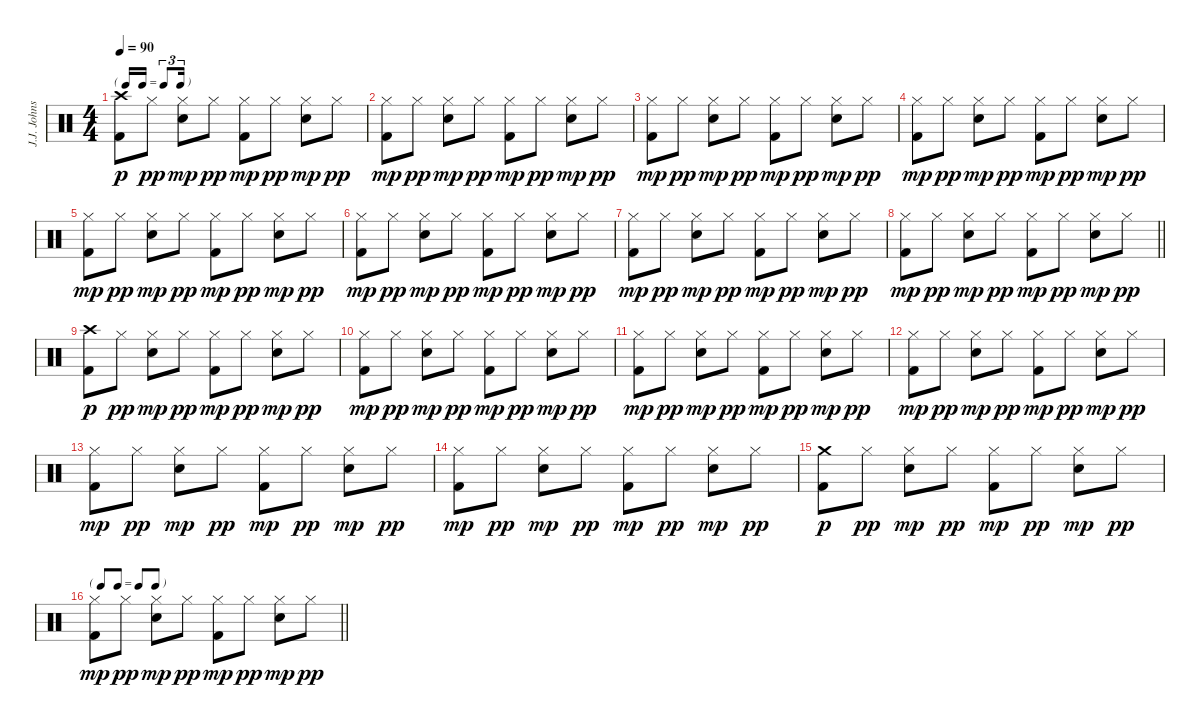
\track ("J.J. Johnson" "J.J. Johns") {instrument percussion}
\staff {score}
\articulation defaults
\ts (4 4)
\tf triplet16th
\tempo 90
\clef neutral
\ks c
("Crash high (hit)" "Kick (hit) 2").8{dy p} "Hi-Hat (closed)".8{dy pp} ("Hi-Hat (closed)" "Electric Snare (hit)").8{dy mp} "Hi-Hat (closed)".8{dy pp} ("Hi-Hat (closed)" "Kick (hit) 2").8{dy mp} "Hi-Hat (closed)".8{dy pp} ("Hi-Hat (closed)" "Electric Snare (hit)").8{dy mp} "Hi-Hat (closed)".8{dy pp} |
("Hi-Hat (closed)" "Kick (hit) 2").8{dy mp} "Hi-Hat (closed)".8{dy pp} ("Hi-Hat (closed)" "Electric Snare (hit)").8{dy mp} "Hi-Hat (closed)".8{dy pp} ("Hi-Hat (closed)" "Kick (hit) 2").8{dy mp} "Hi-Hat (closed)".8{dy pp} ("Hi-Hat (closed)" "Electric Snare (hit)").8{dy mp} "Hi-Hat (closed)".8{dy pp} |
("Hi-Hat (closed)" "Kick (hit) 2").8{dy mp} "Hi-Hat (closed)".8{dy pp} ("Hi-Hat (closed)" "Electric Snare (hit)").8{dy mp} "Hi-Hat (closed)".8{dy pp} ("Hi-Hat (closed)" "Kick (hit) 2").8{dy mp} "Hi-Hat (closed)".8{dy pp} ("Hi-Hat (closed)" "Electric Snare (hit)").8{dy mp} "Hi-Hat (closed)".8{dy pp} |
("Hi-Hat (closed)" "Kick (hit) 2").8{dy mp} "Hi-Hat (closed)".8{dy pp} ("Hi-Hat (closed)" "Electric Snare (hit)").8{dy mp} "Hi-Hat (closed)".8{dy pp} ("Hi-Hat (closed)" "Kick (hit) 2").8{dy mp} "Hi-Hat (closed)".8{dy pp} ("Hi-Hat (closed)" "Electric Snare (hit)").8{dy mp} "Hi-Hat (closed)".8{dy pp} |
("Hi-Hat (closed)" "Kick (hit) 2").8{dy mp} "Hi-Hat (closed)".8{dy pp} ("Hi-Hat (closed)" "Electric Snare (hit)").8{dy mp} "Hi-Hat (closed)".8{dy pp} ("Hi-Hat (closed)" "Kick (hit) 2").8{dy mp} "Hi-Hat (closed)".8{dy pp} ("Hi-Hat (closed)" "Electric Snare (hit)").8{dy mp} "Hi-Hat (closed)".8{dy pp} |
("Hi-Hat (closed)" "Kick (hit) 2").8{dy mp} "Hi-Hat (closed)".8{dy pp} ("Hi-Hat (closed)" "Electric Snare (hit)").8{dy mp} "Hi-Hat (closed)".8{dy pp} ("Hi-Hat (closed)" "Kick (hit) 2").8{dy mp} "Hi-Hat (closed)".8{dy pp} ("Hi-Hat (closed)" "Electric Snare (hit)").8{dy mp} "Hi-Hat (closed)".8{dy pp} |
("Hi-Hat (closed)" "Kick (hit) 2").8{dy mp} "Hi-Hat (closed)".8{dy pp} ("Hi-Hat (closed)" "Electric Snare (hit)").8{dy mp} "Hi-Hat (closed)".8{dy pp} ("Hi-Hat (closed)" "Kick (hit) 2").8{dy mp} "Hi-Hat (closed)".8{dy pp} ("Hi-Hat (closed)" "Electric Snare (hit)").8{dy mp} "Hi-Hat (closed)".8{dy pp} |
\barLineRight lightlight
("Hi-Hat (closed)" "Kick (hit) 2").8{dy mp} "Hi-Hat (closed)".8{dy pp} ("Hi-Hat (closed)" "Electric Snare (hit)").8{dy mp} "Hi-Hat (closed)".8{dy pp} ("Hi-Hat (closed)" "Kick (hit) 2").8{dy mp} "Hi-Hat (closed)".8{dy pp} ("Hi-Hat (closed)" "Electric Snare (hit)").8{dy mp} "Hi-Hat (closed)".8{dy pp} |
("Crash high (hit)" "Kick (hit) 2").8{dy p} "Hi-Hat (closed)".8{dy pp} ("Hi-Hat (closed)" "Electric Snare (hit)").8{dy mp} "Hi-Hat (closed)".8{dy pp} ("Hi-Hat (closed)" "Kick (hit) 2").8{dy mp} "Hi-Hat (closed)".8{dy pp} ("Hi-Hat (closed)" "Electric Snare (hit)").8{dy mp} "Hi-Hat (closed)".8{dy pp} |
("Hi-Hat (closed)" "Kick (hit) 2").8{dy mp} "Hi-Hat (closed)".8{dy pp} ("Hi-Hat (closed)" "Electric Snare (hit)").8{dy mp} "Hi-Hat (closed)".8{dy pp} ("Hi-Hat (closed)" "Kick (hit) 2").8{dy mp} "Hi-Hat (closed)".8{dy pp} ("Hi-Hat (closed)" "Electric Snare (hit)").8{dy mp} "Hi-Hat (closed)".8{dy pp} |
("Hi-Hat (closed)" "Kick (hit) 2").8{dy mp} "Hi-Hat (closed)".8{dy pp} ("Hi-Hat (closed)" "Electric Snare (hit)").8{dy mp} "Hi-Hat (closed)".8{dy pp} ("Hi-Hat (closed)" "Kick (hit) 2").8{dy mp} "Hi-Hat (closed)".8{dy pp} ("Hi-Hat (closed)" "Electric Snare (hit)").8{dy mp} "Hi-Hat (closed)".8{dy pp} |
("Hi-Hat (closed)" "Kick (hit) 2").8{dy mp} "Hi-Hat (closed)".8{dy pp} ("Hi-Hat (closed)" "Electric Snare (hit)").8{dy mp} "Hi-Hat (closed)".8{dy pp} ("Hi-Hat (closed)" "Kick (hit) 2").8{dy mp} "Hi-Hat (closed)".8{dy pp} ("Hi-Hat (closed)" "Electric Snare (hit)").8{dy mp} "Hi-Hat (closed)".8{dy pp} |
("Hi-Hat (closed)" "Kick (hit) 2").8{dy mp} "Hi-Hat (closed)".8{dy pp} ("Hi-Hat (closed)" "Electric Snare (hit)").8{dy mp} "Hi-Hat (closed)".8{dy pp} ("Hi-Hat (closed)" "Kick (hit) 2").8{dy mp} "Hi-Hat (closed)".8{dy pp} ("Hi-Hat (closed)" "Electric Snare (hit)").8{dy mp} "Hi-Hat (closed)".8{dy pp} |
("Hi-Hat (closed)" "Kick (hit) 2").8{dy mp} "Hi-Hat (closed)".8{dy pp} ("Hi-Hat (closed)" "Electric Snare (hit)").8{dy mp} "Hi-Hat (closed)".8{dy pp} ("Hi-Hat (closed)" "Kick (hit) 2").8{dy mp} "Hi-Hat (closed)".8{dy pp} ("Hi-Hat (closed)" "Electric Snare (hit)").8{dy mp} "Hi-Hat (closed)".8{dy pp} |
("Crash medium (hit)" "Kick (hit) 2").8{dy p} "Hi-Hat (closed)".8{dy pp} ("Hi-Hat (closed)" "Electric Snare (hit)").8{dy mp} "Hi-Hat (closed)".8{dy pp} ("Hi-Hat (closed)" "Kick (hit) 2").8{dy mp} "Hi-Hat (closed)".8{dy pp} ("Hi-Hat (closed)" "Electric Snare (hit)").8{dy mp} "Hi-Hat (closed)".8{dy pp} |
\tf none
\barLineRight lightlight
("Hi-Hat (closed)" "Kick (hit) 2").8{dy mp} "Hi-Hat (closed)".8{dy pp} ("Hi-Hat (closed)" "Electric Snare (hit)").8{dy mp} "Hi-Hat (closed)".8{dy pp} ("Hi-Hat (closed)" "Kick (hit) 2").8{dy mp} "Hi-Hat (closed)".8{dy pp} ("Hi-Hat (closed)" "Electric Snare (hit)").8{dy mp} "Hi-Hat (closed)".8{dy pp}
